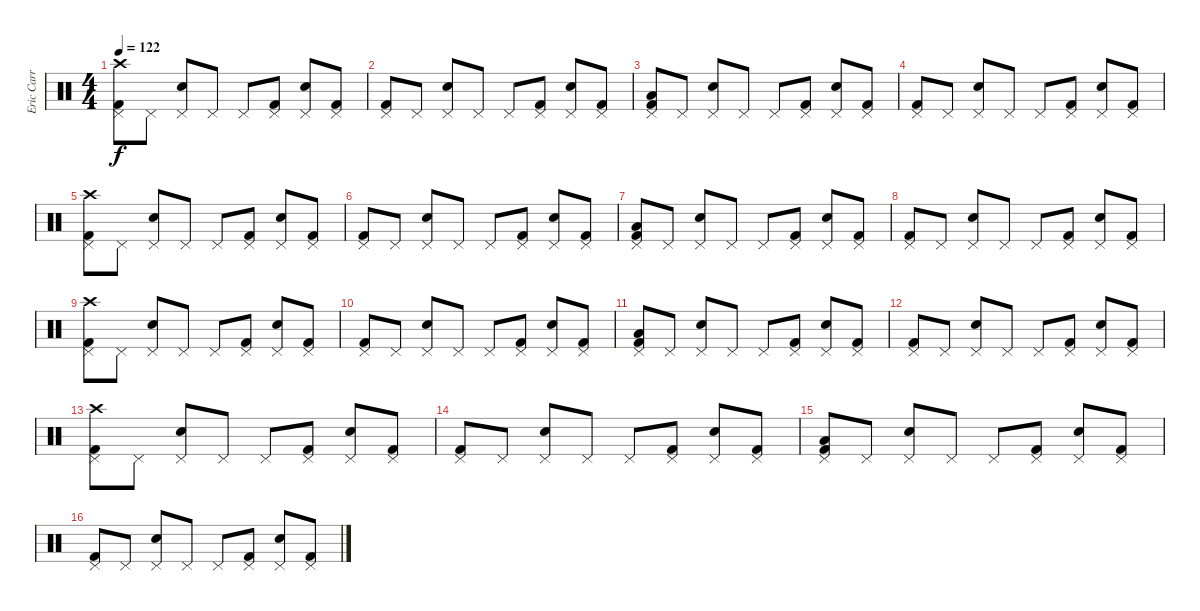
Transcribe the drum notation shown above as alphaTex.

\track ("Eric Carr" "Eric Carr") {instrument percussion}
\staff {score}
\articulation defaults
\ts (4 4)
\tempo 122
\clef neutral
\ks c
("Kick (hit) 2" "Pedal Hi-Hat (hit)" "Crash high (hit)").8{dy f} "Pedal Hi-Hat (hit)".8 ("Pedal Hi-Hat (hit)" "Snare (hit) 2").8 "Pedal Hi-Hat (hit)".8 "Pedal Hi-Hat (hit)".8 ("Kick (hit) 2" "Pedal Hi-Hat (hit)").8 ("Pedal Hi-Hat (hit)" "Snare (hit) 2").8 ("Kick (hit) 2" "Pedal Hi-Hat (hit)").8 |
("Kick (hit) 2" "Pedal Hi-Hat (hit)").8 "Pedal Hi-Hat (hit)".8 ("Pedal Hi-Hat (hit)" "Snare (hit) 2").8 "Pedal Hi-Hat (hit)".8 "Pedal Hi-Hat (hit)".8 ("Kick (hit) 2" "Pedal Hi-Hat (hit)").8 ("Pedal Hi-Hat (hit)" "Snare (hit) 2").8 ("Kick (hit) 2" "Pedal Hi-Hat (hit)").8 |
("Kick (hit) 2" "Pedal Hi-Hat (hit)" "Low Tom (hit)").8 "Pedal Hi-Hat (hit)".8 ("Pedal Hi-Hat (hit)" "Snare (hit) 2").8 "Pedal Hi-Hat (hit)".8 "Pedal Hi-Hat (hit)".8 ("Kick (hit) 2" "Pedal Hi-Hat (hit)").8 ("Pedal Hi-Hat (hit)" "Snare (hit) 2").8 ("Kick (hit) 2" "Pedal Hi-Hat (hit)").8 |
("Kick (hit) 2" "Pedal Hi-Hat (hit)").8 "Pedal Hi-Hat (hit)".8 ("Pedal Hi-Hat (hit)" "Snare (hit) 2").8 "Pedal Hi-Hat (hit)".8 "Pedal Hi-Hat (hit)".8 ("Kick (hit) 2" "Pedal Hi-Hat (hit)").8 ("Pedal Hi-Hat (hit)" "Snare (hit) 2").8 ("Kick (hit) 2" "Pedal Hi-Hat (hit)").8 |
("Kick (hit) 2" "Pedal Hi-Hat (hit)" "Crash high (hit)").8 "Pedal Hi-Hat (hit)".8 ("Pedal Hi-Hat (hit)" "Snare (hit) 2").8 "Pedal Hi-Hat (hit)".8 "Pedal Hi-Hat (hit)".8 ("Kick (hit) 2" "Pedal Hi-Hat (hit)").8 ("Pedal Hi-Hat (hit)" "Snare (hit) 2").8 ("Kick (hit) 2" "Pedal Hi-Hat (hit)").8 |
("Kick (hit) 2" "Pedal Hi-Hat (hit)").8 "Pedal Hi-Hat (hit)".8 ("Pedal Hi-Hat (hit)" "Snare (hit) 2").8 "Pedal Hi-Hat (hit)".8 "Pedal Hi-Hat (hit)".8 ("Kick (hit) 2" "Pedal Hi-Hat (hit)").8 ("Pedal Hi-Hat (hit)" "Snare (hit) 2").8 ("Kick (hit) 2" "Pedal Hi-Hat (hit)").8 |
("Kick (hit) 2" "Pedal Hi-Hat (hit)" "Low Tom (hit)").8 "Pedal Hi-Hat (hit)".8 ("Pedal Hi-Hat (hit)" "Snare (hit) 2").8 "Pedal Hi-Hat (hit)".8 "Pedal Hi-Hat (hit)".8 ("Kick (hit) 2" "Pedal Hi-Hat (hit)").8 ("Pedal Hi-Hat (hit)" "Snare (hit) 2").8 ("Kick (hit) 2" "Pedal Hi-Hat (hit)").8 |
("Kick (hit) 2" "Pedal Hi-Hat (hit)").8 "Pedal Hi-Hat (hit)".8 ("Pedal Hi-Hat (hit)" "Snare (hit) 2").8 "Pedal Hi-Hat (hit)".8 "Pedal Hi-Hat (hit)".8 ("Kick (hit) 2" "Pedal Hi-Hat (hit)").8 ("Pedal Hi-Hat (hit)" "Snare (hit) 2").8 ("Kick (hit) 2" "Pedal Hi-Hat (hit)").8 |
("Kick (hit) 2" "Pedal Hi-Hat (hit)" "Crash high (hit)").8 "Pedal Hi-Hat (hit)".8 ("Pedal Hi-Hat (hit)" "Snare (hit) 2").8 "Pedal Hi-Hat (hit)".8 "Pedal Hi-Hat (hit)".8 ("Kick (hit) 2" "Pedal Hi-Hat (hit)").8 ("Pedal Hi-Hat (hit)" "Snare (hit) 2").8 ("Kick (hit) 2" "Pedal Hi-Hat (hit)").8 |
("Kick (hit) 2" "Pedal Hi-Hat (hit)").8 "Pedal Hi-Hat (hit)".8 ("Pedal Hi-Hat (hit)" "Snare (hit) 2").8 "Pedal Hi-Hat (hit)".8 "Pedal Hi-Hat (hit)".8 ("Kick (hit) 2" "Pedal Hi-Hat (hit)").8 ("Pedal Hi-Hat (hit)" "Snare (hit) 2").8 ("Kick (hit) 2" "Pedal Hi-Hat (hit)").8 |
("Kick (hit) 2" "Pedal Hi-Hat (hit)" "Low Tom (hit)").8 "Pedal Hi-Hat (hit)".8 ("Pedal Hi-Hat (hit)" "Snare (hit) 2").8 "Pedal Hi-Hat (hit)".8 "Pedal Hi-Hat (hit)".8 ("Kick (hit) 2" "Pedal Hi-Hat (hit)").8 ("Pedal Hi-Hat (hit)" "Snare (hit) 2").8 ("Kick (hit) 2" "Pedal Hi-Hat (hit)").8 |
("Kick (hit) 2" "Pedal Hi-Hat (hit)").8 "Pedal Hi-Hat (hit)".8 ("Pedal Hi-Hat (hit)" "Snare (hit) 2").8 "Pedal Hi-Hat (hit)".8 "Pedal Hi-Hat (hit)".8 ("Kick (hit) 2" "Pedal Hi-Hat (hit)").8 ("Pedal Hi-Hat (hit)" "Snare (hit) 2").8 ("Kick (hit) 2" "Pedal Hi-Hat (hit)").8 |
("Kick (hit) 2" "Pedal Hi-Hat (hit)" "Crash high (hit)").8 "Pedal Hi-Hat (hit)".8 ("Pedal Hi-Hat (hit)" "Snare (hit) 2").8 "Pedal Hi-Hat (hit)".8 "Pedal Hi-Hat (hit)".8 ("Kick (hit) 2" "Pedal Hi-Hat (hit)").8 ("Pedal Hi-Hat (hit)" "Snare (hit) 2").8 ("Kick (hit) 2" "Pedal Hi-Hat (hit)").8 |
("Kick (hit) 2" "Pedal Hi-Hat (hit)").8 "Pedal Hi-Hat (hit)".8 ("Pedal Hi-Hat (hit)" "Snare (hit) 2").8 "Pedal Hi-Hat (hit)".8 "Pedal Hi-Hat (hit)".8 ("Kick (hit) 2" "Pedal Hi-Hat (hit)").8 ("Pedal Hi-Hat (hit)" "Snare (hit) 2").8 ("Kick (hit) 2" "Pedal Hi-Hat (hit)").8 |
("Kick (hit) 2" "Pedal Hi-Hat (hit)" "Low Tom (hit)").8 "Pedal Hi-Hat (hit)".8 ("Pedal Hi-Hat (hit)" "Snare (hit) 2").8 "Pedal Hi-Hat (hit)".8 "Pedal Hi-Hat (hit)".8 ("Kick (hit) 2" "Pedal Hi-Hat (hit)").8 ("Pedal Hi-Hat (hit)" "Snare (hit) 2").8 ("Kick (hit) 2" "Pedal Hi-Hat (hit)").8 |
("Kick (hit) 2" "Pedal Hi-Hat (hit)").8 "Pedal Hi-Hat (hit)".8 ("Pedal Hi-Hat (hit)" "Snare (hit) 2").8 "Pedal Hi-Hat (hit)".8 "Pedal Hi-Hat (hit)".8 ("Kick (hit) 2" "Pedal Hi-Hat (hit)").8 ("Pedal Hi-Hat (hit)" "Snare (hit) 2").8 ("Kick (hit) 2" "Pedal Hi-Hat (hit)").8
